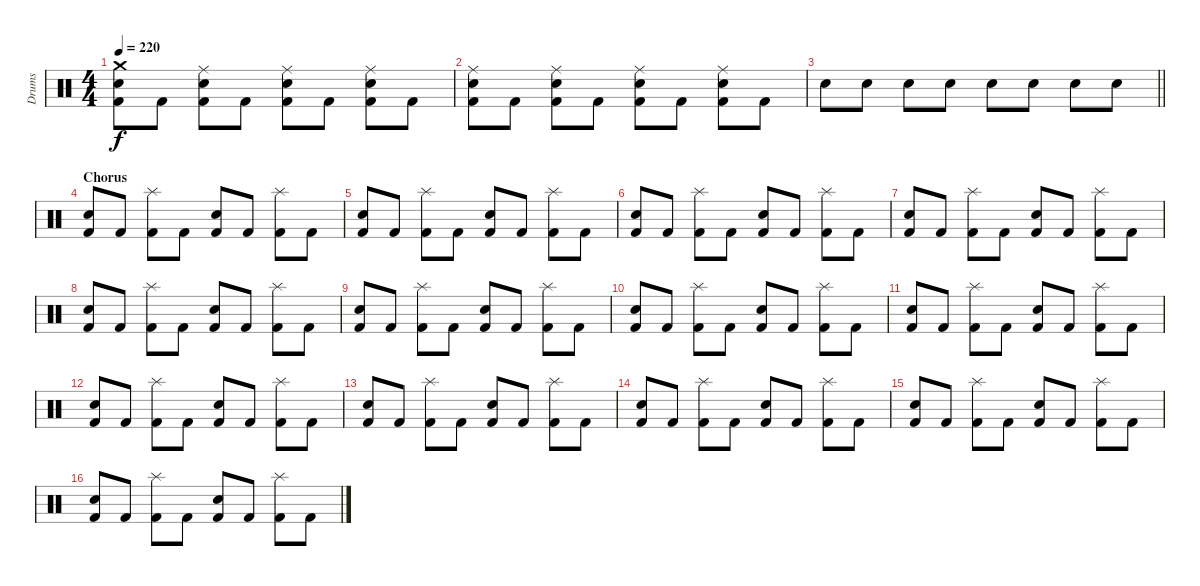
\track ("Drums" "Drums") {instrument percussion}
\staff {score}
\articulation defaults
\ts (4 4)
\tempo 220
\clef neutral
\ks c
("Kick (hit) 2" "Snare (hit) 2" "Crash medium (hit)").8{dy f} "Kick (hit) 2".8 ("Kick (hit) 2" "Snare (hit) 2" "Ride (middle)").8 "Kick (hit) 2".8 ("Kick (hit) 2" "Snare (hit) 2" "Ride (middle)").8 "Kick (hit) 2".8 ("Kick (hit) 2" "Snare (hit) 2" "Ride (middle)").8 "Kick (hit) 2".8 |
("Kick (hit) 2" "Snare (hit) 2" "Ride (middle)").8 "Kick (hit) 2".8 ("Kick (hit) 2" "Snare (hit) 2" "Ride (middle)").8 "Kick (hit) 2".8 ("Kick (hit) 2" "Snare (hit) 2" "Ride (middle)").8 "Kick (hit) 2".8 ("Kick (hit) 2" "Snare (hit) 2" "Ride (middle)").8 "Kick (hit) 2".8 |
\barLineRight lightlight "Snare (hit) 2".8 "Snare (hit) 2".8 "Snare (hit) 2".8 "Snare (hit) 2".8 "Snare (hit) 2".8 "Snare (hit) 2".8 "Snare (hit) 2".8 "Snare (hit) 2".8
|
\section ("" "Chorus")
("Kick (hit) 2" "Snare (hit) 2").8 "Kick (hit) 2".8 ("Kick (hit) 2" "Splash (hit)").8 "Kick (hit) 2".8 ("Kick (hit) 2" "Snare (hit) 2").8 "Kick (hit) 2".8 ("Kick (hit) 2" "Splash (hit)").8 "Kick (hit) 2".8 |
("Kick (hit) 2" "Snare (hit) 2").8 "Kick (hit) 2".8 ("Kick (hit) 2" "Splash (hit)").8 "Kick (hit) 2".8 ("Kick (hit) 2" "Snare (hit) 2").8 "Kick (hit) 2".8 ("Kick (hit) 2" "Splash (hit)").8 "Kick (hit) 2".8 |
("Kick (hit) 2" "Snare (hit) 2").8 "Kick (hit) 2".8 ("Kick (hit) 2" "Splash (hit)").8 "Kick (hit) 2".8 ("Kick (hit) 2" "Snare (hit) 2").8 "Kick (hit) 2".8 ("Kick (hit) 2" "Splash (hit)").8 "Kick (hit) 2".8 |
("Kick (hit) 2" "Snare (hit) 2").8 "Kick (hit) 2".8 ("Kick (hit) 2" "Splash (hit)").8 "Kick (hit) 2".8 ("Kick (hit) 2" "Snare (hit) 2").8 "Kick (hit) 2".8 ("Kick (hit) 2" "Splash (hit)").8 "Kick (hit) 2".8 |
("Kick (hit) 2" "Snare (hit) 2").8 "Kick (hit) 2".8 ("Kick (hit) 2" "Splash (hit)").8 "Kick (hit) 2".8 ("Kick (hit) 2" "Snare (hit) 2").8 "Kick (hit) 2".8 ("Kick (hit) 2" "Splash (hit)").8 "Kick (hit) 2".8 |
("Kick (hit) 2" "Snare (hit) 2").8 "Kick (hit) 2".8 ("Kick (hit) 2" "Splash (hit)").8 "Kick (hit) 2".8 ("Kick (hit) 2" "Snare (hit) 2").8 "Kick (hit) 2".8 ("Kick (hit) 2" "Splash (hit)").8 "Kick (hit) 2".8 |
("Kick (hit) 2" "Snare (hit) 2").8 "Kick (hit) 2".8 ("Kick (hit) 2" "Splash (hit)").8 "Kick (hit) 2".8 ("Kick (hit) 2" "Snare (hit) 2").8 "Kick (hit) 2".8 ("Kick (hit) 2" "Splash (hit)").8 "Kick (hit) 2".8 |
("Kick (hit) 2" "Snare (hit) 2").8 "Kick (hit) 2".8 ("Kick (hit) 2" "Splash (hit)").8 "Kick (hit) 2".8 ("Kick (hit) 2" "Snare (hit) 2").8 "Kick (hit) 2".8 ("Kick (hit) 2" "Splash (hit)").8 "Kick (hit) 2".8 |
("Kick (hit) 2" "Snare (hit) 2").8 "Kick (hit) 2".8 ("Kick (hit) 2" "Splash (hit)").8 "Kick (hit) 2".8 ("Kick (hit) 2" "Snare (hit) 2").8 "Kick (hit) 2".8 ("Kick (hit) 2" "Splash (hit)").8 "Kick (hit) 2".8 |
("Kick (hit) 2" "Snare (hit) 2").8 "Kick (hit) 2".8 ("Kick (hit) 2" "Splash (hit)").8 "Kick (hit) 2".8 ("Kick (hit) 2" "Snare (hit) 2").8 "Kick (hit) 2".8 ("Kick (hit) 2" "Splash (hit)").8 "Kick (hit) 2".8 |
("Kick (hit) 2" "Snare (hit) 2").8 "Kick (hit) 2".8 ("Kick (hit) 2" "Splash (hit)").8 "Kick (hit) 2".8 ("Kick (hit) 2" "Snare (hit) 2").8 "Kick (hit) 2".8 ("Kick (hit) 2" "Splash (hit)").8 "Kick (hit) 2".8 |
("Kick (hit) 2" "Snare (hit) 2").8 "Kick (hit) 2".8 ("Kick (hit) 2" "Splash (hit)").8 "Kick (hit) 2".8 ("Kick (hit) 2" "Snare (hit) 2").8 "Kick (hit) 2".8 ("Kick (hit) 2" "Splash (hit)").8 "Kick (hit) 2".8 |
("Kick (hit) 2" "Snare (hit) 2").8 "Kick (hit) 2".8 ("Kick (hit) 2" "Splash (hit)").8 "Kick (hit) 2".8 ("Kick (hit) 2" "Snare (hit) 2").8 "Kick (hit) 2".8 ("Kick (hit) 2" "Splash (hit)").8 "Kick (hit) 2".8
